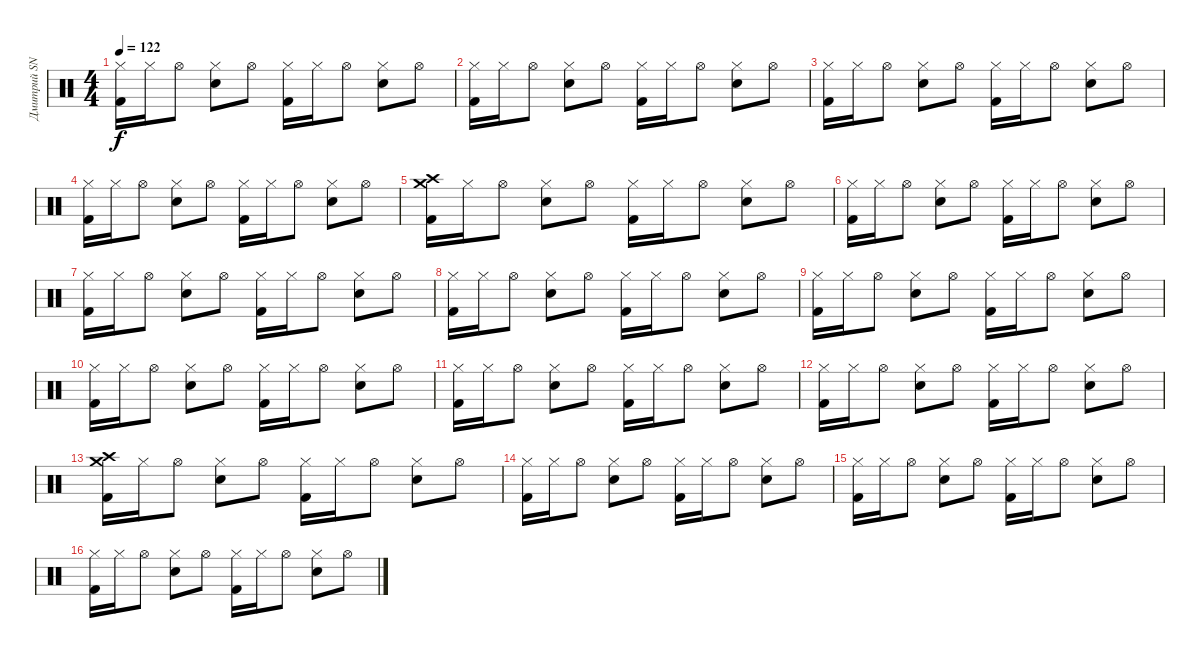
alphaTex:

\track ("Дмитрий SNAKE Хакимов" "Дмитрий SN") {instrument percussion}
\staff {score}
\articulation defaults
\ts (4 4)
\tempo 122
\clef neutral
\ks c
("Hi-Hat (closed)" "Kick (hit) 2").16{dy f} "Hi-Hat (closed)".16 "Hi-Hat (open)".8 ("Hi-Hat (closed)" "Snare (hit) 2").8 "Hi-Hat (open)".8 ("Hi-Hat (closed)" "Kick (hit) 2").16 "Hi-Hat (closed)".16 "Hi-Hat (open)".8 ("Hi-Hat (closed)" "Snare (hit) 2").8 "Hi-Hat (open)".8 |
("Hi-Hat (closed)" "Kick (hit) 2").16 "Hi-Hat (closed)".16 "Hi-Hat (open)".8 ("Hi-Hat (closed)" "Snare (hit) 2").8 "Hi-Hat (open)".8 ("Hi-Hat (closed)" "Kick (hit) 2").16 "Hi-Hat (closed)".16 "Hi-Hat (open)".8 ("Hi-Hat (closed)" "Snare (hit) 2").8 "Hi-Hat (open)".8 |
("Hi-Hat (closed)" "Kick (hit) 2").16 "Hi-Hat (closed)".16 "Hi-Hat (open)".8 ("Hi-Hat (closed)" "Snare (hit) 2").8 "Hi-Hat (open)".8 ("Hi-Hat (closed)" "Kick (hit) 2").16 "Hi-Hat (closed)".16 "Hi-Hat (open)".8 ("Hi-Hat (closed)" "Snare (hit) 2").8 "Hi-Hat (open)".8 |
("Hi-Hat (closed)" "Kick (hit) 2").16 "Hi-Hat (closed)".16 "Hi-Hat (open)".8 ("Hi-Hat (closed)" "Snare (hit) 2").8 "Hi-Hat (open)".8 ("Hi-Hat (closed)" "Kick (hit) 2").16 "Hi-Hat (closed)".16 "Hi-Hat (open)".8 ("Hi-Hat (closed)" "Snare (hit) 2").8 "Hi-Hat (open)".8 |
("Crash high (hit)" "Crash medium (hit)" "Kick (hit) 2").16 "Hi-Hat (closed)".16 "Hi-Hat (open)".8 ("Hi-Hat (closed)" "Snare (hit) 2").8 "Hi-Hat (open)".8 ("Hi-Hat (closed)" "Kick (hit) 2").16 "Hi-Hat (closed)".16 "Hi-Hat (open)".8 ("Hi-Hat (closed)" "Snare (hit) 2").8 "Hi-Hat (open)".8 |
("Hi-Hat (closed)" "Kick (hit) 2").16 "Hi-Hat (closed)".16 "Hi-Hat (open)".8 ("Hi-Hat (closed)" "Snare (hit) 2").8 "Hi-Hat (open)".8 ("Hi-Hat (closed)" "Kick (hit) 2").16 "Hi-Hat (closed)".16 "Hi-Hat (open)".8 ("Hi-Hat (closed)" "Snare (hit) 2").8 "Hi-Hat (open)".8 |
("Hi-Hat (closed)" "Kick (hit) 2").16 "Hi-Hat (closed)".16 "Hi-Hat (open)".8 ("Hi-Hat (closed)" "Snare (hit) 2").8 "Hi-Hat (open)".8 ("Hi-Hat (closed)" "Kick (hit) 2").16 "Hi-Hat (closed)".16 "Hi-Hat (open)".8 ("Hi-Hat (closed)" "Snare (hit) 2").8 "Hi-Hat (open)".8 |
("Hi-Hat (closed)" "Kick (hit) 2").16 "Hi-Hat (closed)".16 "Hi-Hat (open)".8 ("Hi-Hat (closed)" "Snare (hit) 2").8 "Hi-Hat (open)".8 ("Hi-Hat (closed)" "Kick (hit) 2").16 "Hi-Hat (closed)".16 "Hi-Hat (open)".8 ("Hi-Hat (closed)" "Snare (hit) 2").8 "Hi-Hat (open)".8 |
("Hi-Hat (closed)" "Kick (hit) 2").16 "Hi-Hat (closed)".16 "Hi-Hat (open)".8 ("Hi-Hat (closed)" "Snare (hit) 2").8 "Hi-Hat (open)".8 ("Hi-Hat (closed)" "Kick (hit) 2").16 "Hi-Hat (closed)".16 "Hi-Hat (open)".8 ("Hi-Hat (closed)" "Snare (hit) 2").8 "Hi-Hat (open)".8 |
("Hi-Hat (closed)" "Kick (hit) 2").16 "Hi-Hat (closed)".16 "Hi-Hat (open)".8 ("Hi-Hat (closed)" "Snare (hit) 2").8 "Hi-Hat (open)".8 ("Hi-Hat (closed)" "Kick (hit) 2").16 "Hi-Hat (closed)".16 "Hi-Hat (open)".8 ("Hi-Hat (closed)" "Snare (hit) 2").8 "Hi-Hat (open)".8 |
("Hi-Hat (closed)" "Kick (hit) 2").16 "Hi-Hat (closed)".16 "Hi-Hat (open)".8 ("Hi-Hat (closed)" "Snare (hit) 2").8 "Hi-Hat (open)".8 ("Hi-Hat (closed)" "Kick (hit) 2").16 "Hi-Hat (closed)".16 "Hi-Hat (open)".8 ("Hi-Hat (closed)" "Snare (hit) 2").8 "Hi-Hat (open)".8 |
("Hi-Hat (closed)" "Kick (hit) 2").16 "Hi-Hat (closed)".16 "Hi-Hat (open)".8 ("Hi-Hat (closed)" "Snare (hit) 2").8 "Hi-Hat (open)".8 ("Hi-Hat (closed)" "Kick (hit) 2").16 "Hi-Hat (closed)".16 "Hi-Hat (open)".8 ("Hi-Hat (closed)" "Snare (hit) 2").8 "Hi-Hat (open)".8 |
("Crash high (hit)" "Crash medium (hit)" "Kick (hit) 2").16 "Hi-Hat (closed)".16 "Hi-Hat (open)".8 ("Hi-Hat (closed)" "Snare (hit) 2").8 "Hi-Hat (open)".8 ("Hi-Hat (closed)" "Kick (hit) 2").16 "Hi-Hat (closed)".16 "Hi-Hat (open)".8 ("Hi-Hat (closed)" "Snare (hit) 2").8 "Hi-Hat (open)".8 |
("Hi-Hat (closed)" "Kick (hit) 2").16 "Hi-Hat (closed)".16 "Hi-Hat (open)".8 ("Hi-Hat (closed)" "Snare (hit) 2").8 "Hi-Hat (open)".8 ("Hi-Hat (closed)" "Kick (hit) 2").16 "Hi-Hat (closed)".16 "Hi-Hat (open)".8 ("Hi-Hat (closed)" "Snare (hit) 2").8 "Hi-Hat (open)".8 |
("Hi-Hat (closed)" "Kick (hit) 2").16 "Hi-Hat (closed)".16 "Hi-Hat (open)".8 ("Hi-Hat (closed)" "Snare (hit) 2").8 "Hi-Hat (open)".8 ("Hi-Hat (closed)" "Kick (hit) 2").16 "Hi-Hat (closed)".16 "Hi-Hat (open)".8 ("Hi-Hat (closed)" "Snare (hit) 2").8 "Hi-Hat (open)".8 |
("Hi-Hat (closed)" "Kick (hit) 2").16 "Hi-Hat (closed)".16 "Hi-Hat (open)".8 ("Hi-Hat (closed)" "Snare (hit) 2").8 "Hi-Hat (open)".8 ("Hi-Hat (closed)" "Kick (hit) 2").16 "Hi-Hat (closed)".16 "Hi-Hat (open)".8 ("Hi-Hat (closed)" "Snare (hit) 2").8 "Hi-Hat (open)".8
